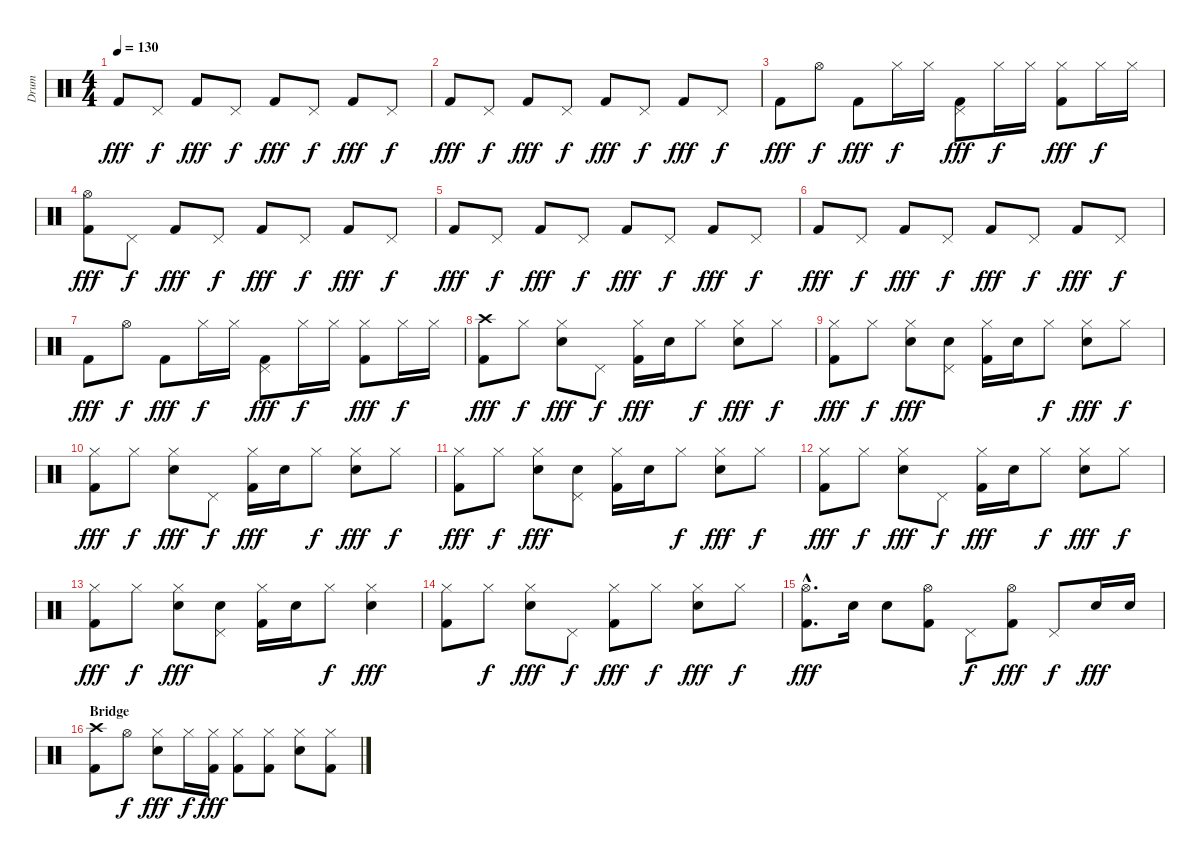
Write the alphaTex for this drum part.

\track ("Drum" "Drum") {instrument percussion}
\staff {score}
\articulation defaults
\ts (4 4)
\tempo 130
\clef neutral
\ks c "Kick (hit) 2".8{dy fff} "Pedal Hi-Hat (hit)".8{dy f} "Kick (hit) 2".8{dy fff} "Pedal Hi-Hat (hit)".8{dy f} "Kick (hit) 2".8{dy fff} "Pedal Hi-Hat (hit)".8{dy f} "Kick (hit) 2".8{dy fff} "Pedal Hi-Hat (hit)".8{dy f}
|
"Kick (hit) 2".8{dy fff} "Pedal Hi-Hat (hit)".8{dy f} "Kick (hit) 2".8{dy fff} "Pedal Hi-Hat (hit)".8{dy f} "Kick (hit) 2".8{dy fff} "Pedal Hi-Hat (hit)".8{dy f} "Kick (hit) 2".8{dy fff} "Pedal Hi-Hat (hit)".8{dy f} |
"Kick (hit) 2".8{dy fff} "Hi-Hat (open)".8{dy f} "Kick (hit) 2".8{dy fff} "Hi-Hat (closed)".16{dy f} "Hi-Hat (closed)".16 ("Pedal Hi-Hat (hit)" "Kick (hit) 2").8{dy fff} "Hi-Hat (closed)".16{dy f} "Hi-Hat (closed)".16 ("Hi-Hat (closed)" "Kick (hit) 2").8{dy fff} "Hi-Hat (closed)".16{dy f} "Hi-Hat (closed)".16 |
("Hi-Hat (open)" "Kick (hit) 2").8{dy fff} "Pedal Hi-Hat (hit)".8{dy f} "Kick (hit) 2".8{dy fff} "Pedal Hi-Hat (hit)".8{dy f} "Kick (hit) 2".8{dy fff} "Pedal Hi-Hat (hit)".8{dy f} "Kick (hit) 2".8{dy fff} "Pedal Hi-Hat (hit)".8{dy f} |
"Kick (hit) 2".8{dy fff} "Pedal Hi-Hat (hit)".8{dy f} "Kick (hit) 2".8{dy fff} "Pedal Hi-Hat (hit)".8{dy f} "Kick (hit) 2".8{dy fff} "Pedal Hi-Hat (hit)".8{dy f} "Kick (hit) 2".8{dy fff} "Pedal Hi-Hat (hit)".8{dy f} |
"Kick (hit) 2".8{dy fff} "Pedal Hi-Hat (hit)".8{dy f} "Kick (hit) 2".8{dy fff} "Pedal Hi-Hat (hit)".8{dy f} "Kick (hit) 2".8{dy fff} "Pedal Hi-Hat (hit)".8{dy f} "Kick (hit) 2".8{dy fff} "Pedal Hi-Hat (hit)".8{dy f} |
"Kick (hit) 2".8{dy fff} "Hi-Hat (open)".8{dy f} "Kick (hit) 2".8{dy fff} "Hi-Hat (closed)".16{dy f} "Hi-Hat (closed)".16 ("Pedal Hi-Hat (hit)" "Kick (hit) 2").8{dy fff} "Hi-Hat (closed)".16{dy f} "Hi-Hat (closed)".16 ("Hi-Hat (closed)" "Kick (hit) 2").8{dy fff} "Hi-Hat (closed)".16{dy f} "Hi-Hat (closed)".16 |
("Crash high (hit)" "Kick (hit) 2").8{dy fff} "Hi-Hat (closed)".8{dy f} ("Hi-Hat (closed)" "Electric Snare (hit)").8{dy fff} "Pedal Hi-Hat (hit)".8{dy f} ("Hi-Hat (closed)" "Kick (hit) 2").16{dy fff} "Electric Snare (hit)".16 "Hi-Hat (closed)".8{dy f} ("Hi-Hat (closed)" "Electric Snare (hit)").8{dy fff} "Hi-Hat (closed)".8{dy f} |
("Hi-Hat (closed)" "Kick (hit) 2").8{dy fff} "Hi-Hat (closed)".8{dy f} ("Hi-Hat (closed)" "Electric Snare (hit)").8{dy fff} ("Pedal Hi-Hat (hit)" "Electric Snare (hit)").8 ("Hi-Hat (closed)" "Kick (hit) 2").16 "Electric Snare (hit)".16 "Hi-Hat (closed)".8{dy f} ("Hi-Hat (closed)" "Electric Snare (hit)").8{dy fff} "Hi-Hat (closed)".8{dy f} |
("Hi-Hat (closed)" "Kick (hit) 2").8{dy fff} "Hi-Hat (closed)".8{dy f} ("Hi-Hat (closed)" "Electric Snare (hit)").8{dy fff} "Pedal Hi-Hat (hit)".8{dy f} ("Hi-Hat (closed)" "Kick (hit) 2").16{dy fff} "Electric Snare (hit)".16 "Hi-Hat (closed)".8{dy f} ("Hi-Hat (closed)" "Electric Snare (hit)").8{dy fff} "Hi-Hat (closed)".8{dy f} |
("Hi-Hat (closed)" "Kick (hit) 2").8{dy fff} "Hi-Hat (closed)".8{dy f} ("Hi-Hat (closed)" "Electric Snare (hit)").8{dy fff} ("Pedal Hi-Hat (hit)" "Electric Snare (hit)").8 ("Hi-Hat (closed)" "Kick (hit) 2").16 "Electric Snare (hit)".16 "Hi-Hat (closed)".8{dy f} ("Hi-Hat (closed)" "Electric Snare (hit)").8{dy fff} "Hi-Hat (closed)".8{dy f} |
("Hi-Hat (closed)" "Kick (hit) 2").8{dy fff} "Hi-Hat (closed)".8{dy f} ("Hi-Hat (closed)" "Electric Snare (hit)").8{dy fff} "Pedal Hi-Hat (hit)".8{dy f} ("Hi-Hat (closed)" "Kick (hit) 2").16{dy fff} "Electric Snare (hit)".16 "Hi-Hat (closed)".8{dy f} ("Hi-Hat (closed)" "Electric Snare (hit)").8{dy fff} "Hi-Hat (closed)".8{dy f} |
("Hi-Hat (closed)" "Kick (hit) 2").8{dy fff} "Hi-Hat (closed)".8{dy f} ("Hi-Hat (closed)" "Electric Snare (hit)").8{dy fff} ("Pedal Hi-Hat (hit)" "Electric Snare (hit)").8 ("Hi-Hat (closed)" "Kick (hit) 2").16 "Electric Snare (hit)".16 "Hi-Hat (closed)".8{dy f} ("Hi-Hat (closed)" "Electric Snare (hit)").4{dy fff} |
("Hi-Hat (closed)" "Kick (hit) 2").8 "Hi-Hat (closed)".8{dy f} ("Hi-Hat (closed)" "Electric Snare (hit)").8{dy fff} "Pedal Hi-Hat (hit)".8{dy f} ("Hi-Hat (closed)" "Kick (hit) 2").8{dy fff} "Hi-Hat (closed)".8{dy f} ("Hi-Hat (closed)" "Electric Snare (hit)").8{dy fff} "Hi-Hat (closed)".8{dy f} |
("Hi-Hat (open)"{hac} "Kick (hit) 2"{hac}).8{d dy fff} "Electric Snare (hit)".16 "Electric Snare (hit)".8 ("Hi-Hat (open)" "Kick (hit) 2").8 "Pedal Hi-Hat (hit)".8{dy f} ("Hi-Hat (open)" "Kick (hit) 2").8{dy fff} "Pedal Hi-Hat (hit)".8{dy f} "Electric Snare (hit)".16{dy fff} "Electric Snare (hit)".16 |
\section ("" "Bridge")
("Crash high (hit)" "Kick (hit) 2").8 "Hi-Hat (open)".8{dy f} ("Hi-Hat (closed)" "Electric Snare (hit)").8{dy fff} "Hi-Hat (closed)".16{dy f} ("Hi-Hat (closed)" "Kick (hit) 2").16{dy fff} ("Hi-Hat (closed)" "Kick (hit) 2").8 ("Hi-Hat (closed)" "Kick (hit) 2").8 ("Hi-Hat (closed)" "Electric Snare (hit)").8 ("Hi-Hat (closed)" "Kick (hit) 2").8
